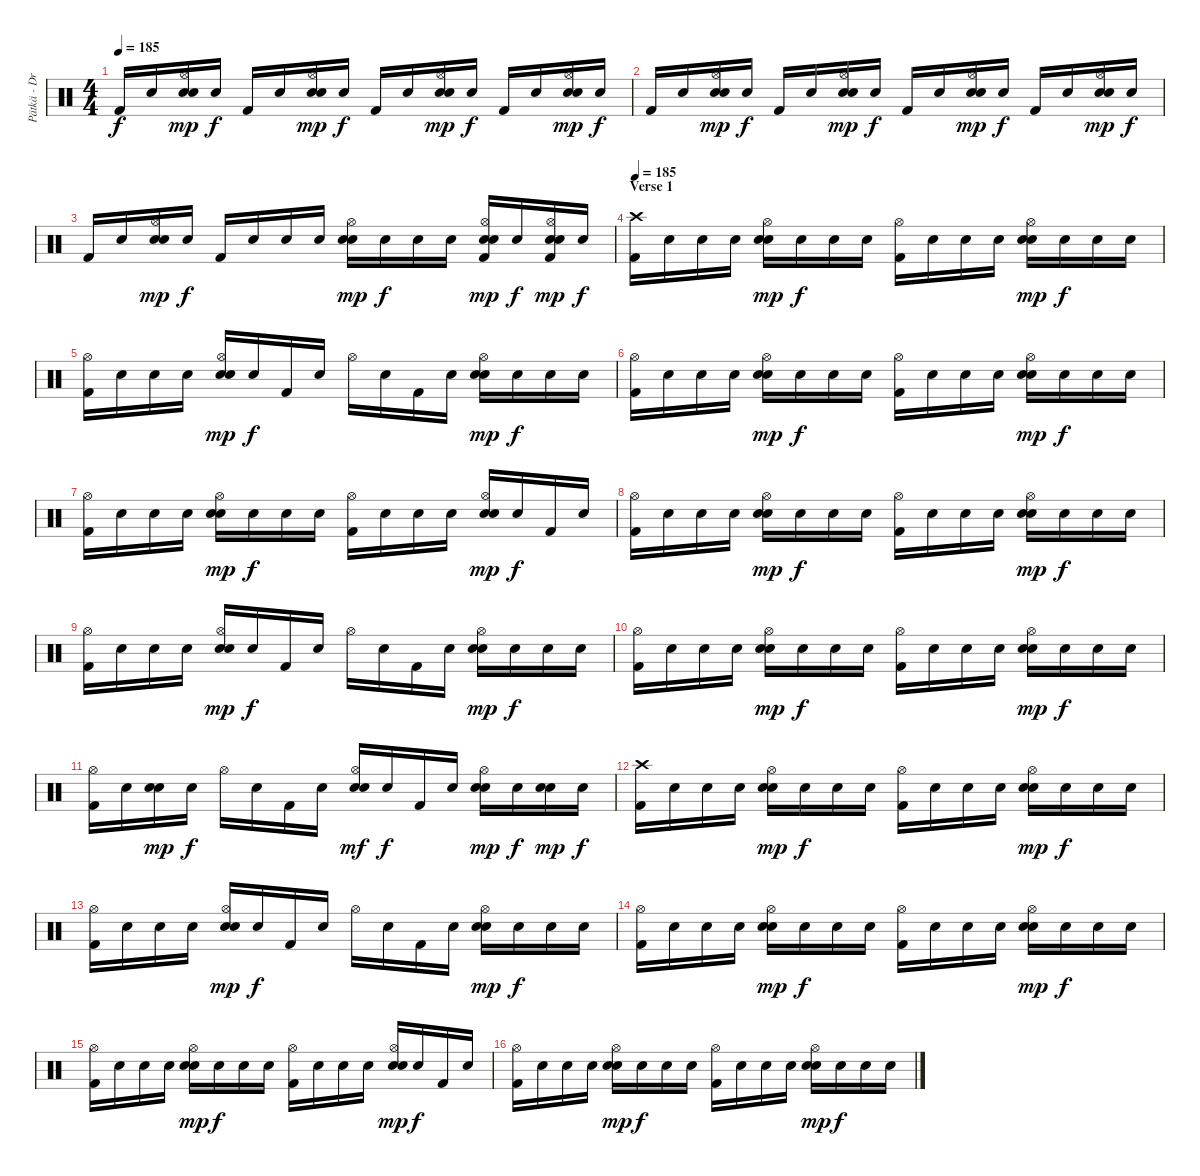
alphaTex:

\track ("Pätkä - Drums" "Pätkä - Dr") {instrument percussion}
\staff {score}
\articulation defaults
\ts (4 4)
\tempo 185
\clef neutral
\ks c "Kick (hit) 2".16{dy f} "Snare (hit)".16
("Hi-Hat (open)" "Electric Snare (hit)" "Snare (hit) 2").16{dy mp} "Snare (hit)".16{dy f} "Kick (hit) 2".16 "Snare (hit)".16 ("Hi-Hat (open)" "Electric Snare (hit)" "Snare (hit) 2").16{dy mp} "Snare (hit)".16{dy f} "Kick (hit) 2".16 "Snare (hit)".16 ("Hi-Hat (open)" "Electric Snare (hit)" "Snare (hit) 2").16{dy mp} "Snare (hit)".16{dy f} "Kick (hit) 2".16 "Snare (hit)".16 ("Hi-Hat (open)" "Electric Snare (hit)" "Snare (hit) 2").16{dy mp} "Snare (hit)".16{dy f} |
"Kick (hit) 2".16 "Snare (hit)".16 ("Hi-Hat (open)" "Electric Snare (hit)" "Snare (hit) 2").16{dy mp} "Snare (hit)".16{dy f} "Kick (hit) 2".16 "Snare (hit)".16 ("Hi-Hat (open)" "Electric Snare (hit)" "Snare (hit) 2").16{dy mp} "Snare (hit)".16{dy f} "Kick (hit) 2".16 "Snare (hit)".16 ("Hi-Hat (open)" "Electric Snare (hit)" "Snare (hit) 2").16{dy mp} "Snare (hit)".16{dy f} "Kick (hit) 2".16 "Snare (hit)".16 ("Hi-Hat (open)" "Electric Snare (hit)" "Snare (hit) 2").16{dy mp} "Snare (hit)".16{dy f} |
"Kick (hit) 2".16 "Snare (hit)".16 ("Hi-Hat (open)" "Electric Snare (hit)" "Snare (hit) 2").16{dy mp} "Snare (hit)".16{dy f} "Kick (hit) 2".16 "Snare (hit)".16 "Snare (hit)".16 "Snare (hit)".16 ("Hi-Hat (open)" "Electric Snare (hit)" "Snare (hit) 2").16{dy mp} "Snare (hit)".16{dy f} "Snare (hit)".16 "Snare (hit)".16 ("Hi-Hat (open)" "Electric Snare (hit)" "Snare (hit) 2" "Kick (hit) 2").16{dy mp} "Snare (hit)".16{dy f} ("Hi-Hat (open)" "Electric Snare (hit)" "Snare (hit) 2" "Kick (hit) 2").16{dy mp} "Snare (hit)".16{dy f} |
\section ("" "Verse 1")
\tempo 185
("Crash high (hit)" "Kick (hit) 2").16{volume 16 balance 8} "Snare (hit)".16 "Snare (hit)".16 "Snare (hit)".16 ("Hi-Hat (open)" "Electric Snare (hit)" "Snare (hit) 2").16{dy mp} "Snare (hit)".16{dy f} "Snare (hit)".16 "Snare (hit)".16 ("Hi-Hat (open)" "Kick (hit) 2").16 "Snare (hit)".16 "Snare (hit)".16 "Snare (hit)".16 ("Hi-Hat (open)" "Electric Snare (hit)" "Snare (hit) 2").16{dy mp} "Snare (hit)".16{dy f} "Snare (hit)".16 "Snare (hit)".16 |
("Hi-Hat (open)" "Kick (hit) 2").16 "Snare (hit)".16 "Snare (hit)".16 "Snare (hit)".16 ("Hi-Hat (open)" "Electric Snare (hit)" "Snare (hit) 2").16{dy mp} "Snare (hit)".16{dy f} "Kick (hit) 2".16 "Snare (hit)".16 "Hi-Hat (open)".16 "Snare (hit)".16 "Kick (hit) 2".16 "Snare (hit)".16 ("Hi-Hat (open)" "Electric Snare (hit)" "Snare (hit) 2").16{dy mp} "Snare (hit)".16{dy f} "Snare (hit)".16 "Snare (hit)".16 |
("Hi-Hat (open)" "Kick (hit) 2").16 "Snare (hit)".16 "Snare (hit)".16 "Snare (hit)".16 ("Hi-Hat (open)" "Electric Snare (hit)" "Snare (hit) 2").16{dy mp} "Snare (hit)".16{dy f} "Snare (hit)".16 "Snare (hit)".16 ("Hi-Hat (open)" "Kick (hit) 2").16 "Snare (hit)".16 "Snare (hit)".16 "Snare (hit)".16 ("Hi-Hat (open)" "Electric Snare (hit)" "Snare (hit) 2").16{dy mp} "Snare (hit)".16{dy f} "Snare (hit)".16 "Snare (hit)".16 |
("Hi-Hat (open)" "Kick (hit) 2").16 "Snare (hit)".16 "Snare (hit)".16 "Snare (hit)".16 ("Hi-Hat (open)" "Electric Snare (hit)" "Snare (hit) 2").16{dy mp} "Snare (hit)".16{dy f} "Snare (hit)".16 "Snare (hit)".16 ("Hi-Hat (open)" "Kick (hit) 2").16 "Snare (hit)".16 "Snare (hit)".16 "Snare (hit)".16 ("Hi-Hat (open)" "Electric Snare (hit)" "Snare (hit) 2").16{dy mp} "Snare (hit)".16{dy f} "Kick (hit) 2".16 "Snare (hit)".16 |
("Hi-Hat (open)" "Kick (hit) 2").16 "Snare (hit)".16 "Snare (hit)".16 "Snare (hit)".16 ("Hi-Hat (open)" "Electric Snare (hit)" "Snare (hit) 2").16{dy mp} "Snare (hit)".16{dy f} "Snare (hit)".16 "Snare (hit)".16 ("Hi-Hat (open)" "Kick (hit) 2").16 "Snare (hit)".16 "Snare (hit)".16 "Snare (hit)".16 ("Hi-Hat (open)" "Electric Snare (hit)" "Snare (hit) 2").16{dy mp} "Snare (hit)".16{dy f} "Snare (hit)".16 "Snare (hit)".16 |
("Hi-Hat (open)" "Kick (hit) 2").16 "Snare (hit)".16 "Snare (hit)".16 "Snare (hit)".16 ("Hi-Hat (open)" "Electric Snare (hit)" "Snare (hit) 2").16{dy mp} "Snare (hit)".16{dy f} "Kick (hit) 2".16 "Snare (hit)".16 "Hi-Hat (open)".16 "Snare (hit)".16 "Kick (hit) 2".16 "Snare (hit)".16 ("Hi-Hat (open)" "Electric Snare (hit)" "Snare (hit) 2").16{dy mp} "Snare (hit)".16{dy f} "Snare (hit)".16 "Snare (hit)".16 |
("Hi-Hat (open)" "Kick (hit) 2").16 "Snare (hit)".16 "Snare (hit)".16 "Snare (hit)".16 ("Hi-Hat (open)" "Electric Snare (hit)" "Snare (hit) 2").16{dy mp} "Snare (hit)".16{dy f} "Snare (hit)".16 "Snare (hit)".16 ("Hi-Hat (open)" "Kick (hit) 2").16 "Snare (hit)".16 "Snare (hit)".16 "Snare (hit)".16 ("Hi-Hat (open)" "Electric Snare (hit)" "Snare (hit) 2").16{dy mp} "Snare (hit)".16{dy f} "Snare (hit)".16 "Snare (hit)".16 |
("Hi-Hat (open)" "Kick (hit) 2").16 "Snare (hit)".16 ("Electric Snare (hit)" "Snare (hit) 2").16{dy mp} "Snare (hit)".16{dy f} "Hi-Hat (open)".16 "Snare (hit)".16 "Kick (hit) 2".16 "Snare (hit)".16 ("Hi-Hat (open)" "Electric Snare (hit)" "Snare (hit) 2").16{dy mf} "Snare (hit)".16{dy f} "Kick (hit) 2".16 "Snare (hit)".16 ("Hi-Hat (open)" "Electric Snare (hit)" "Snare (hit) 2").16{dy mp} "Snare (hit)".16{dy f} ("Electric Snare (hit)" "Snare (hit) 2").16{dy mp} "Snare (hit)".16{dy f} |
("Crash high (hit)" "Kick (hit) 2").16 "Snare (hit)".16 "Snare (hit)".16 "Snare (hit)".16 ("Hi-Hat (open)" "Electric Snare (hit)" "Snare (hit) 2").16{dy mp} "Snare (hit)".16{dy f} "Snare (hit)".16 "Snare (hit)".16 ("Hi-Hat (open)" "Kick (hit) 2").16 "Snare (hit)".16 "Snare (hit)".16 "Snare (hit)".16 ("Hi-Hat (open)" "Electric Snare (hit)" "Snare (hit) 2").16{dy mp} "Snare (hit)".16{dy f} "Snare (hit)".16 "Snare (hit)".16 |
("Hi-Hat (open)" "Kick (hit) 2").16 "Snare (hit)".16 "Snare (hit)".16 "Snare (hit)".16 ("Hi-Hat (open)" "Electric Snare (hit)" "Snare (hit) 2").16{dy mp} "Snare (hit)".16{dy f} "Kick (hit) 2".16 "Snare (hit)".16 "Hi-Hat (open)".16 "Snare (hit)".16 "Kick (hit) 2".16 "Snare (hit)".16 ("Hi-Hat (open)" "Electric Snare (hit)" "Snare (hit) 2").16{dy mp} "Snare (hit)".16{dy f} "Snare (hit)".16 "Snare (hit)".16 |
("Hi-Hat (open)" "Kick (hit) 2").16 "Snare (hit)".16 "Snare (hit)".16 "Snare (hit)".16 ("Hi-Hat (open)" "Electric Snare (hit)" "Snare (hit) 2").16{dy mp} "Snare (hit)".16{dy f} "Snare (hit)".16 "Snare (hit)".16 ("Hi-Hat (open)" "Kick (hit) 2").16 "Snare (hit)".16 "Snare (hit)".16 "Snare (hit)".16 ("Hi-Hat (open)" "Electric Snare (hit)" "Snare (hit) 2").16{dy mp} "Snare (hit)".16{dy f} "Snare (hit)".16 "Snare (hit)".16 |
("Hi-Hat (open)" "Kick (hit) 2").16 "Snare (hit)".16 "Snare (hit)".16 "Snare (hit)".16 ("Hi-Hat (open)" "Electric Snare (hit)" "Snare (hit) 2").16{dy mp} "Snare (hit)".16{dy f} "Snare (hit)".16 "Snare (hit)".16 ("Hi-Hat (open)" "Kick (hit) 2").16 "Snare (hit)".16 "Snare (hit)".16 "Snare (hit)".16 ("Hi-Hat (open)" "Electric Snare (hit)" "Snare (hit) 2").16{dy mp} "Snare (hit)".16{dy f} "Kick (hit) 2".16 "Snare (hit)".16 |
("Hi-Hat (open)" "Kick (hit) 2").16 "Snare (hit)".16 "Snare (hit)".16 "Snare (hit)".16 ("Hi-Hat (open)" "Electric Snare (hit)" "Snare (hit) 2").16{dy mp} "Snare (hit)".16{dy f} "Snare (hit)".16 "Snare (hit)".16 ("Hi-Hat (open)" "Kick (hit) 2").16 "Snare (hit)".16 "Snare (hit)".16 "Snare (hit)".16 ("Hi-Hat (open)" "Electric Snare (hit)" "Snare (hit) 2").16{dy mp} "Snare (hit)".16{dy f} "Snare (hit)".16 "Snare (hit)".16
